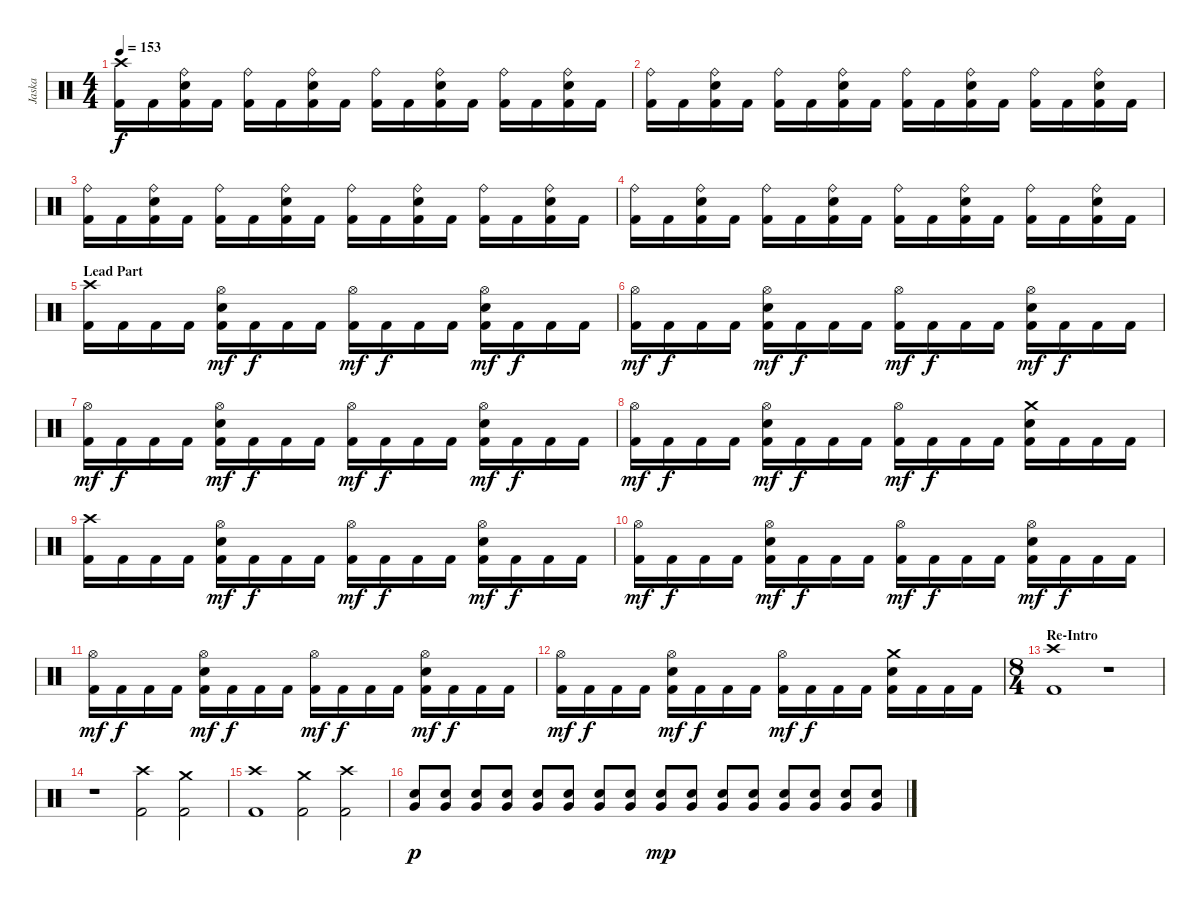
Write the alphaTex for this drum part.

\track ("Jaska" "Jaska") {instrument percussion}
\staff {score}
\articulation defaults
\ts (4 4)
\tempo 153
\clef neutral
\ks c
("Crash high (hit)" "Kick (hit) 2").16{dy f} "Kick (hit) 2".16 ("Ride (bell)" "Electric Snare (hit)" "Kick (hit) 2").16 "Kick (hit) 2".16 ("Ride (bell)" "Kick (hit) 2").16 "Kick (hit) 2".16 ("Ride (bell)" "Electric Snare (hit)" "Kick (hit) 2").16 "Kick (hit) 2".16 ("Ride (bell)" "Kick (hit) 2").16 "Kick (hit) 2".16 ("Ride (bell)" "Electric Snare (hit)" "Kick (hit) 2").16 "Kick (hit) 2".16 ("Ride (bell)" "Kick (hit) 2").16 "Kick (hit) 2".16 ("Ride (bell)" "Electric Snare (hit)" "Kick (hit) 2").16 "Kick (hit) 2".16 |
("Ride (bell)" "Kick (hit) 2").16 "Kick (hit) 2".16 ("Ride (bell)" "Electric Snare (hit)" "Kick (hit) 2").16 "Kick (hit) 2".16 ("Ride (bell)" "Kick (hit) 2").16 "Kick (hit) 2".16 ("Ride (bell)" "Electric Snare (hit)" "Kick (hit) 2").16 "Kick (hit) 2".16 ("Ride (bell)" "Kick (hit) 2").16 "Kick (hit) 2".16 ("Ride (bell)" "Electric Snare (hit)" "Kick (hit) 2").16 "Kick (hit) 2".16 ("Ride (bell)" "Kick (hit) 2").16 "Kick (hit) 2".16 ("Ride (bell)" "Electric Snare (hit)" "Kick (hit) 2").16 "Kick (hit) 2".16 |
("Ride (bell)" "Kick (hit) 2").16 "Kick (hit) 2".16 ("Ride (bell)" "Electric Snare (hit)" "Kick (hit) 2").16 "Kick (hit) 2".16 ("Ride (bell)" "Kick (hit) 2").16 "Kick (hit) 2".16 ("Ride (bell)" "Electric Snare (hit)" "Kick (hit) 2").16 "Kick (hit) 2".16 ("Ride (bell)" "Kick (hit) 2").16 "Kick (hit) 2".16 ("Ride (bell)" "Electric Snare (hit)" "Kick (hit) 2").16 "Kick (hit) 2".16 ("Ride (bell)" "Kick (hit) 2").16 "Kick (hit) 2".16 ("Ride (bell)" "Electric Snare (hit)" "Kick (hit) 2").16 "Kick (hit) 2".16 |
("Ride (bell)" "Kick (hit) 2").16 "Kick (hit) 2".16 ("Ride (bell)" "Electric Snare (hit)" "Kick (hit) 2").16 "Kick (hit) 2".16 ("Ride (bell)" "Kick (hit) 2").16 "Kick (hit) 2".16 ("Ride (bell)" "Electric Snare (hit)" "Kick (hit) 2").16 "Kick (hit) 2".16 ("Ride (bell)" "Kick (hit) 2").16 "Kick (hit) 2".16 ("Ride (bell)" "Electric Snare (hit)" "Kick (hit) 2").16 "Kick (hit) 2".16 ("Ride (bell)" "Kick (hit) 2").16 "Kick (hit) 2".16 ("Ride (bell)" "Electric Snare (hit)" "Kick (hit) 2").16 "Kick (hit) 2".16 |
\section ("" "Lead Part")
("Crash high (hit)" "Kick (hit) 2").16 "Kick (hit) 2".16 "Kick (hit) 2".16 "Kick (hit) 2".16 ("Hi-Hat (open)" "Electric Snare (hit)" "Kick (hit) 2").16{dy mf} "Kick (hit) 2".16{dy f} "Kick (hit) 2".16 "Kick (hit) 2".16 ("Hi-Hat (open)" "Kick (hit) 2").16{dy mf} "Kick (hit) 2".16{dy f} "Kick (hit) 2".16 "Kick (hit) 2".16 ("Hi-Hat (open)" "Electric Snare (hit)" "Kick (hit) 2").16{dy mf} "Kick (hit) 2".16{dy f} "Kick (hit) 2".16 "Kick (hit) 2".16 |
("Hi-Hat (open)" "Kick (hit) 2").16{dy mf} "Kick (hit) 2".16{dy f} "Kick (hit) 2".16 "Kick (hit) 2".16 ("Hi-Hat (open)" "Electric Snare (hit)" "Kick (hit) 2").16{dy mf} "Kick (hit) 2".16{dy f} "Kick (hit) 2".16 "Kick (hit) 2".16 ("Hi-Hat (open)" "Kick (hit) 2").16{dy mf} "Kick (hit) 2".16{dy f} "Kick (hit) 2".16 "Kick (hit) 2".16 ("Hi-Hat (open)" "Electric Snare (hit)" "Kick (hit) 2").16{dy mf} "Kick (hit) 2".16{dy f} "Kick (hit) 2".16 "Kick (hit) 2".16 |
("Hi-Hat (open)" "Kick (hit) 2").16{dy mf} "Kick (hit) 2".16{dy f} "Kick (hit) 2".16 "Kick (hit) 2".16 ("Hi-Hat (open)" "Electric Snare (hit)" "Kick (hit) 2").16{dy mf} "Kick (hit) 2".16{dy f} "Kick (hit) 2".16 "Kick (hit) 2".16 ("Hi-Hat (open)" "Kick (hit) 2").16{dy mf} "Kick (hit) 2".16{dy f} "Kick (hit) 2".16 "Kick (hit) 2".16 ("Hi-Hat (open)" "Electric Snare (hit)" "Kick (hit) 2").16{dy mf} "Kick (hit) 2".16{dy f} "Kick (hit) 2".16 "Kick (hit) 2".16 |
("Hi-Hat (open)" "Kick (hit) 2").16{dy mf} "Kick (hit) 2".16{dy f} "Kick (hit) 2".16 "Kick (hit) 2".16 ("Hi-Hat (open)" "Electric Snare (hit)" "Kick (hit) 2").16{dy mf} "Kick (hit) 2".16{dy f} "Kick (hit) 2".16 "Kick (hit) 2".16 ("Hi-Hat (open)" "Kick (hit) 2").16{dy mf} "Kick (hit) 2".16{dy f} "Kick (hit) 2".16 "Kick (hit) 2".16 ("Crash medium (hit)" "Electric Snare (hit)" "Kick (hit) 2").16 "Kick (hit) 2".16 "Kick (hit) 2".16 "Kick (hit) 2".16 |
("Crash high (hit)" "Kick (hit) 2").16 "Kick (hit) 2".16 "Kick (hit) 2".16 "Kick (hit) 2".16 ("Hi-Hat (open)" "Electric Snare (hit)" "Kick (hit) 2").16{dy mf} "Kick (hit) 2".16{dy f} "Kick (hit) 2".16 "Kick (hit) 2".16 ("Hi-Hat (open)" "Kick (hit) 2").16{dy mf} "Kick (hit) 2".16{dy f} "Kick (hit) 2".16 "Kick (hit) 2".16 ("Hi-Hat (open)" "Electric Snare (hit)" "Kick (hit) 2").16{dy mf} "Kick (hit) 2".16{dy f} "Kick (hit) 2".16 "Kick (hit) 2".16 |
("Hi-Hat (open)" "Kick (hit) 2").16{dy mf} "Kick (hit) 2".16{dy f} "Kick (hit) 2".16 "Kick (hit) 2".16 ("Hi-Hat (open)" "Electric Snare (hit)" "Kick (hit) 2").16{dy mf} "Kick (hit) 2".16{dy f} "Kick (hit) 2".16 "Kick (hit) 2".16 ("Hi-Hat (open)" "Kick (hit) 2").16{dy mf} "Kick (hit) 2".16{dy f} "Kick (hit) 2".16 "Kick (hit) 2".16 ("Hi-Hat (open)" "Electric Snare (hit)" "Kick (hit) 2").16{dy mf} "Kick (hit) 2".16{dy f} "Kick (hit) 2".16 "Kick (hit) 2".16 |
("Hi-Hat (open)" "Kick (hit) 2").16{dy mf} "Kick (hit) 2".16{dy f} "Kick (hit) 2".16 "Kick (hit) 2".16 ("Hi-Hat (open)" "Electric Snare (hit)" "Kick (hit) 2").16{dy mf} "Kick (hit) 2".16{dy f} "Kick (hit) 2".16 "Kick (hit) 2".16 ("Hi-Hat (open)" "Kick (hit) 2").16{dy mf} "Kick (hit) 2".16{dy f} "Kick (hit) 2".16 "Kick (hit) 2".16 ("Hi-Hat (open)" "Electric Snare (hit)" "Kick (hit) 2").16{dy mf} "Kick (hit) 2".16{dy f} "Kick (hit) 2".16 "Kick (hit) 2".16 |
("Hi-Hat (open)" "Kick (hit) 2").16{dy mf} "Kick (hit) 2".16{dy f} "Kick (hit) 2".16 "Kick (hit) 2".16 ("Hi-Hat (open)" "Electric Snare (hit)" "Kick (hit) 2").16{dy mf} "Kick (hit) 2".16{dy f} "Kick (hit) 2".16 "Kick (hit) 2".16 ("Hi-Hat (open)" "Kick (hit) 2").16{dy mf} "Kick (hit) 2".16{dy f} "Kick (hit) 2".16 "Kick (hit) 2".16 ("Crash medium (hit)" "Electric Snare (hit)" "Kick (hit) 2").16 "Kick (hit) 2".16 "Kick (hit) 2".16 "Kick (hit) 2".16 |
\ts (8 4)
\section ("" "Re-Intro")
("Crash high (hit)" "Kick (hit) 2").1 r.1 |
r.1 ("Crash high (hit)" "Kick (hit) 2").2 ("Crash medium (hit)" "Kick (hit) 2").2 |
("Crash high (hit)" "Kick (hit) 2").1 ("Crash medium (hit)" "Kick (hit) 2").2 ("Crash high (hit)" "Kick (hit) 2").2 |
("Very Low Tom (hit)" "Electric Snare (hit)").8{dy p} ("Very Low Tom (hit)" "Electric Snare (hit)").8 ("Very Low Tom (hit)" "Electric Snare (hit)").8 ("Very Low Tom (hit)" "Electric Snare (hit)").8 ("Very Low Tom (hit)" "Electric Snare (hit)").8 ("Very Low Tom (hit)" "Electric Snare (hit)").8 ("Very Low Tom (hit)" "Electric Snare (hit)").8 ("Very Low Tom (hit)" "Electric Snare (hit)").8 ("Very Low Tom (hit)" "Electric Snare (hit)").8{dy mp} ("Very Low Tom (hit)" "Electric Snare (hit)").8 ("Very Low Tom (hit)" "Electric Snare (hit)").8 ("Very Low Tom (hit)" "Electric Snare (hit)").8 ("Very Low Tom (hit)" "Electric Snare (hit)").8 ("Very Low Tom (hit)" "Electric Snare (hit)").8 ("Very Low Tom (hit)" "Electric Snare (hit)").8 ("Very Low Tom (hit)" "Electric Snare (hit)").8
